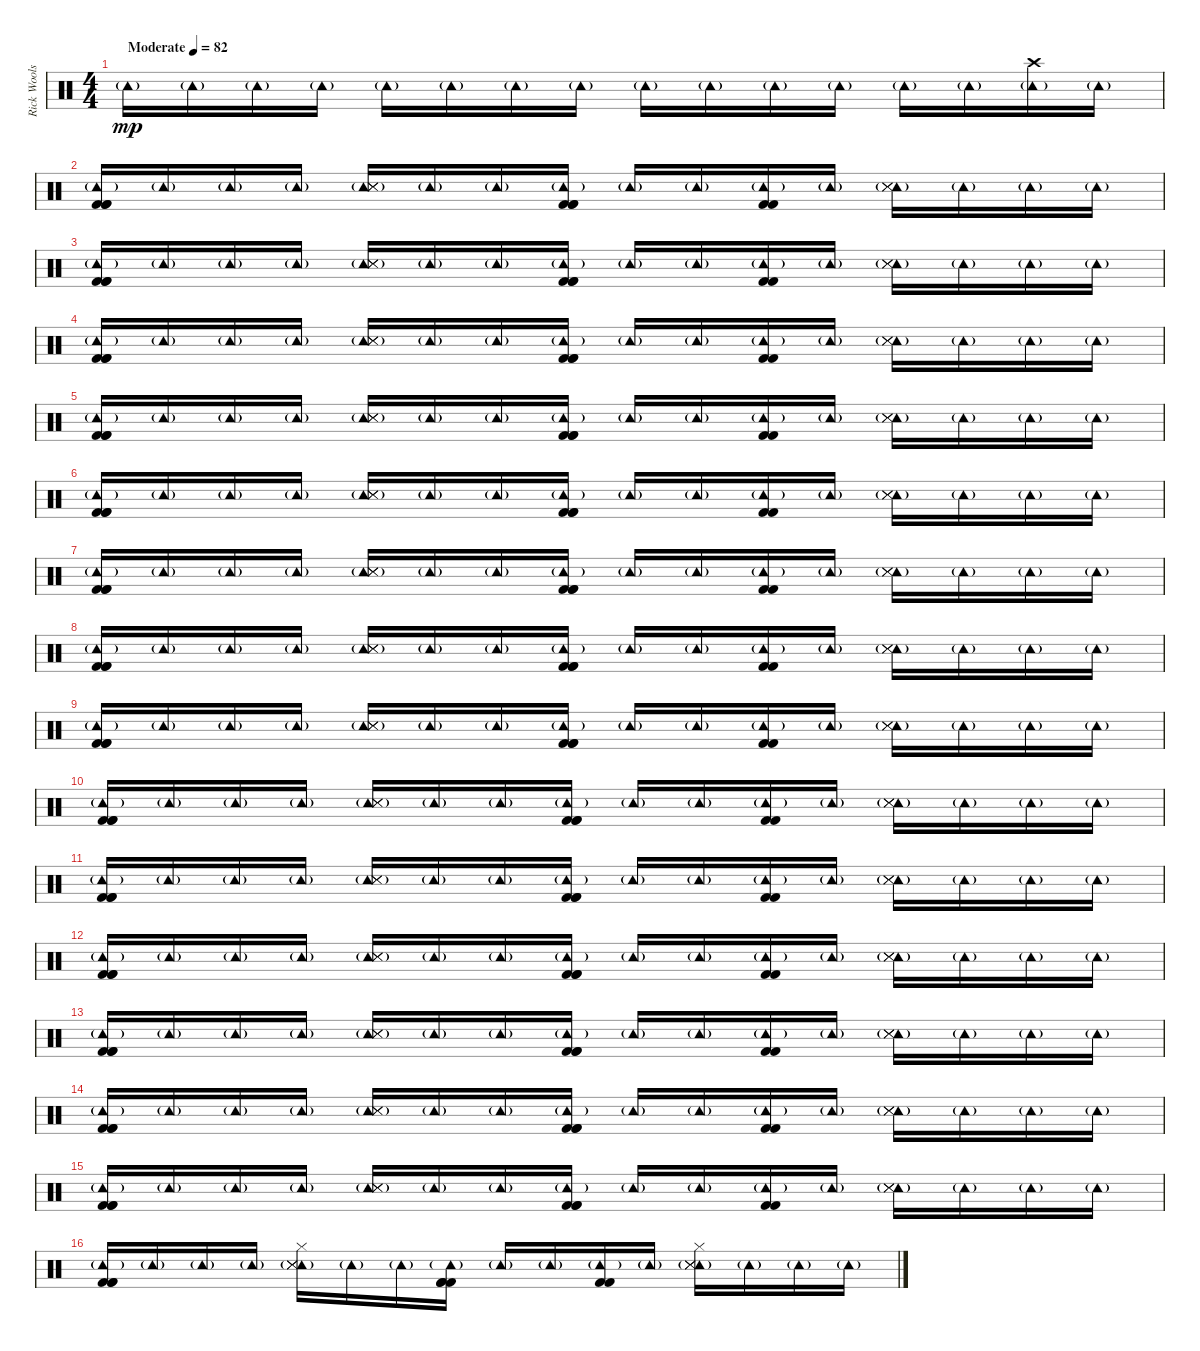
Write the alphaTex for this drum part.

\track ("Rick Woolstenhulme [Drums]" "Rick Wools") {instrument percussion}
\staff {score}
\articulation defaults
\ts (4 4)
\tempo (82 "Moderate")
\clef neutral
\ks c "Tambourine (hit)"{g}.16{dy mp} "Tambourine (hit)"{g}.16 "Tambourine (hit)"{g}.16 "Tambourine (hit)"{g}.16 "Tambourine (hit)"{g}.16 "Tambourine (hit)"{g}.16 "Tambourine (hit)"{g}.16 "Tambourine (hit)"{g}.16 "Tambourine (hit)"{g}.16 "Tambourine (hit)"{g}.16 "Tambourine (hit)"{g}.16 "Tambourine (hit)"{g}.16 "Tambourine (hit)"{g}.16 "Tambourine (hit)"{g}.16
("Tambourine (hit)"{g} "Crash high (hit)").16 "Tambourine (hit)"{g}.16 |
("Tambourine (hit)"{g} "Kick (hit) 2" "Kick (hit) 2" "Kick (hit) 2").16 "Tambourine (hit)"{g}.16 "Tambourine (hit)"{g}.16 "Tambourine (hit)"{g}.16 ("Tambourine (hit)"{g} "Snare (side stick) 3" "Snare (side stick) 3" "Snare (side stick) 3").16 "Tambourine (hit)"{g}.16 "Tambourine (hit)"{g}.16 ("Tambourine (hit)"{g} "Kick (hit) 2" "Kick (hit) 2" "Kick (hit) 2").16 "Tambourine (hit)"{g}.16 "Tambourine (hit)"{g}.16 ("Tambourine (hit)"{g} "Kick (hit) 2" "Kick (hit) 2").16 "Tambourine (hit)"{g}.16 ("Tambourine (hit)"{g} "Snare (side stick) 3" "Snare (side stick) 3" "Snare (side stick) 3").16 "Tambourine (hit)"{g}.16 "Tambourine (hit)"{g}.16 "Tambourine (hit)"{g}.16 |
("Tambourine (hit)"{g} "Kick (hit) 2" "Kick (hit) 2" "Kick (hit) 2").16 "Tambourine (hit)"{g}.16 "Tambourine (hit)"{g}.16 "Tambourine (hit)"{g}.16 ("Tambourine (hit)"{g} "Snare (side stick) 3" "Snare (side stick) 3" "Snare (side stick) 3").16 "Tambourine (hit)"{g}.16 "Tambourine (hit)"{g}.16 ("Tambourine (hit)"{g} "Kick (hit) 2" "Kick (hit) 2" "Kick (hit) 2").16 "Tambourine (hit)"{g}.16 "Tambourine (hit)"{g}.16 ("Tambourine (hit)"{g} "Kick (hit) 2" "Kick (hit) 2").16 "Tambourine (hit)"{g}.16 ("Tambourine (hit)"{g} "Snare (side stick) 3" "Snare (side stick) 3" "Snare (side stick) 3").16 "Tambourine (hit)"{g}.16 "Tambourine (hit)"{g}.16 "Tambourine (hit)"{g}.16 |
("Tambourine (hit)"{g} "Kick (hit) 2" "Kick (hit) 2" "Kick (hit) 2").16 "Tambourine (hit)"{g}.16 "Tambourine (hit)"{g}.16 "Tambourine (hit)"{g}.16 ("Tambourine (hit)"{g} "Snare (side stick) 3" "Snare (side stick) 3" "Snare (side stick) 3").16 "Tambourine (hit)"{g}.16 "Tambourine (hit)"{g}.16 ("Tambourine (hit)"{g} "Kick (hit) 2" "Kick (hit) 2" "Kick (hit) 2").16 "Tambourine (hit)"{g}.16 "Tambourine (hit)"{g}.16 ("Tambourine (hit)"{g} "Kick (hit) 2" "Kick (hit) 2").16 "Tambourine (hit)"{g}.16 ("Tambourine (hit)"{g} "Snare (side stick) 3" "Snare (side stick) 3" "Snare (side stick) 3").16 "Tambourine (hit)"{g}.16 "Tambourine (hit)"{g}.16 "Tambourine (hit)"{g}.16 |
("Tambourine (hit)"{g} "Kick (hit) 2" "Kick (hit) 2" "Kick (hit) 2").16 "Tambourine (hit)"{g}.16 "Tambourine (hit)"{g}.16 "Tambourine (hit)"{g}.16 ("Tambourine (hit)"{g} "Snare (side stick) 3" "Snare (side stick) 3" "Snare (side stick) 3").16 "Tambourine (hit)"{g}.16 "Tambourine (hit)"{g}.16 ("Tambourine (hit)"{g} "Kick (hit) 2" "Kick (hit) 2" "Kick (hit) 2").16 "Tambourine (hit)"{g}.16 "Tambourine (hit)"{g}.16 ("Tambourine (hit)"{g} "Kick (hit) 2" "Kick (hit) 2").16 "Tambourine (hit)"{g}.16 ("Tambourine (hit)"{g} "Snare (side stick) 3" "Snare (side stick) 3" "Snare (side stick) 3").16 "Tambourine (hit)"{g}.16 "Tambourine (hit)"{g}.16 "Tambourine (hit)"{g}.16 |
("Tambourine (hit)"{g} "Kick (hit) 2" "Kick (hit) 2" "Kick (hit) 2").16 "Tambourine (hit)"{g}.16 "Tambourine (hit)"{g}.16 "Tambourine (hit)"{g}.16 ("Tambourine (hit)"{g} "Snare (side stick) 3" "Snare (side stick) 3" "Snare (side stick) 3").16 "Tambourine (hit)"{g}.16 "Tambourine (hit)"{g}.16 ("Tambourine (hit)"{g} "Kick (hit) 2" "Kick (hit) 2" "Kick (hit) 2").16 "Tambourine (hit)"{g}.16 "Tambourine (hit)"{g}.16 ("Tambourine (hit)"{g} "Kick (hit) 2" "Kick (hit) 2").16 "Tambourine (hit)"{g}.16 ("Tambourine (hit)"{g} "Snare (side stick) 3" "Snare (side stick) 3" "Snare (side stick) 3").16 "Tambourine (hit)"{g}.16 "Tambourine (hit)"{g}.16 "Tambourine (hit)"{g}.16 |
("Tambourine (hit)"{g} "Kick (hit) 2" "Kick (hit) 2" "Kick (hit) 2").16 "Tambourine (hit)"{g}.16 "Tambourine (hit)"{g}.16 "Tambourine (hit)"{g}.16 ("Tambourine (hit)"{g} "Snare (side stick) 3" "Snare (side stick) 3" "Snare (side stick) 3").16 "Tambourine (hit)"{g}.16 "Tambourine (hit)"{g}.16 ("Tambourine (hit)"{g} "Kick (hit) 2" "Kick (hit) 2" "Kick (hit) 2").16 "Tambourine (hit)"{g}.16 "Tambourine (hit)"{g}.16 ("Tambourine (hit)"{g} "Kick (hit) 2" "Kick (hit) 2").16 "Tambourine (hit)"{g}.16 ("Tambourine (hit)"{g} "Snare (side stick) 3" "Snare (side stick) 3" "Snare (side stick) 3").16 "Tambourine (hit)"{g}.16 "Tambourine (hit)"{g}.16 "Tambourine (hit)"{g}.16 |
("Tambourine (hit)"{g} "Kick (hit) 2" "Kick (hit) 2" "Kick (hit) 2").16 "Tambourine (hit)"{g}.16 "Tambourine (hit)"{g}.16 "Tambourine (hit)"{g}.16 ("Tambourine (hit)"{g} "Snare (side stick) 3" "Snare (side stick) 3" "Snare (side stick) 3").16 "Tambourine (hit)"{g}.16 "Tambourine (hit)"{g}.16 ("Tambourine (hit)"{g} "Kick (hit) 2" "Kick (hit) 2" "Kick (hit) 2").16 "Tambourine (hit)"{g}.16 "Tambourine (hit)"{g}.16 ("Tambourine (hit)"{g} "Kick (hit) 2" "Kick (hit) 2").16 "Tambourine (hit)"{g}.16 ("Tambourine (hit)"{g} "Snare (side stick) 3" "Snare (side stick) 3" "Snare (side stick) 3").16 "Tambourine (hit)"{g}.16 "Tambourine (hit)"{g}.16 "Tambourine (hit)"{g}.16 |
("Tambourine (hit)"{g} "Kick (hit) 2" "Kick (hit) 2" "Kick (hit) 2").16 "Tambourine (hit)"{g}.16 "Tambourine (hit)"{g}.16 "Tambourine (hit)"{g}.16 ("Tambourine (hit)"{g} "Snare (side stick) 3" "Snare (side stick) 3" "Snare (side stick) 3").16 "Tambourine (hit)"{g}.16 "Tambourine (hit)"{g}.16 ("Tambourine (hit)"{g} "Kick (hit) 2" "Kick (hit) 2" "Kick (hit) 2").16 "Tambourine (hit)"{g}.16 "Tambourine (hit)"{g}.16 ("Tambourine (hit)"{g} "Kick (hit) 2" "Kick (hit) 2").16 "Tambourine (hit)"{g}.16 ("Tambourine (hit)"{g} "Snare (side stick) 3" "Snare (side stick) 3" "Snare (side stick) 3").16 "Tambourine (hit)"{g}.16 "Tambourine (hit)"{g}.16 "Tambourine (hit)"{g}.16 |
("Tambourine (hit)"{g} "Kick (hit) 2" "Kick (hit) 2" "Kick (hit) 2").16 "Tambourine (hit)"{g}.16 "Tambourine (hit)"{g}.16 "Tambourine (hit)"{g}.16 ("Tambourine (hit)"{g} "Snare (side stick) 3" "Snare (side stick) 3" "Snare (side stick) 3").16 "Tambourine (hit)"{g}.16 "Tambourine (hit)"{g}.16 ("Tambourine (hit)"{g} "Kick (hit) 2" "Kick (hit) 2" "Kick (hit) 2").16 "Tambourine (hit)"{g}.16 "Tambourine (hit)"{g}.16 ("Tambourine (hit)"{g} "Kick (hit) 2" "Kick (hit) 2").16 "Tambourine (hit)"{g}.16 ("Tambourine (hit)"{g} "Snare (side stick) 3" "Snare (side stick) 3" "Snare (side stick) 3").16 "Tambourine (hit)"{g}.16 "Tambourine (hit)"{g}.16 "Tambourine (hit)"{g}.16 |
("Tambourine (hit)"{g} "Kick (hit) 2" "Kick (hit) 2" "Kick (hit) 2").16 "Tambourine (hit)"{g}.16 "Tambourine (hit)"{g}.16 "Tambourine (hit)"{g}.16 ("Tambourine (hit)"{g} "Snare (side stick) 3" "Snare (side stick) 3" "Snare (side stick) 3").16 "Tambourine (hit)"{g}.16 "Tambourine (hit)"{g}.16 ("Tambourine (hit)"{g} "Kick (hit) 2" "Kick (hit) 2" "Kick (hit) 2").16 "Tambourine (hit)"{g}.16 "Tambourine (hit)"{g}.16 ("Tambourine (hit)"{g} "Kick (hit) 2" "Kick (hit) 2").16 "Tambourine (hit)"{g}.16 ("Tambourine (hit)"{g} "Snare (side stick) 3" "Snare (side stick) 3" "Snare (side stick) 3").16 "Tambourine (hit)"{g}.16 "Tambourine (hit)"{g}.16 "Tambourine (hit)"{g}.16 |
("Tambourine (hit)"{g} "Kick (hit) 2" "Kick (hit) 2" "Kick (hit) 2").16 "Tambourine (hit)"{g}.16 "Tambourine (hit)"{g}.16 "Tambourine (hit)"{g}.16 ("Tambourine (hit)"{g} "Snare (side stick) 3" "Snare (side stick) 3" "Snare (side stick) 3").16 "Tambourine (hit)"{g}.16 "Tambourine (hit)"{g}.16 ("Tambourine (hit)"{g} "Kick (hit) 2" "Kick (hit) 2" "Kick (hit) 2").16 "Tambourine (hit)"{g}.16 "Tambourine (hit)"{g}.16 ("Tambourine (hit)"{g} "Kick (hit) 2" "Kick (hit) 2").16 "Tambourine (hit)"{g}.16 ("Tambourine (hit)"{g} "Snare (side stick) 3" "Snare (side stick) 3" "Snare (side stick) 3").16 "Tambourine (hit)"{g}.16 "Tambourine (hit)"{g}.16 "Tambourine (hit)"{g}.16 |
("Tambourine (hit)"{g} "Kick (hit) 2" "Kick (hit) 2" "Kick (hit) 2").16 "Tambourine (hit)"{g}.16 "Tambourine (hit)"{g}.16 "Tambourine (hit)"{g}.16 ("Tambourine (hit)"{g} "Snare (side stick) 3" "Snare (side stick) 3" "Snare (side stick) 3").16 "Tambourine (hit)"{g}.16 "Tambourine (hit)"{g}.16 ("Tambourine (hit)"{g} "Kick (hit) 2" "Kick (hit) 2" "Kick (hit) 2").16 "Tambourine (hit)"{g}.16 "Tambourine (hit)"{g}.16 ("Tambourine (hit)"{g} "Kick (hit) 2" "Kick (hit) 2").16 "Tambourine (hit)"{g}.16 ("Tambourine (hit)"{g} "Snare (side stick) 3" "Snare (side stick) 3" "Snare (side stick) 3").16 "Tambourine (hit)"{g}.16 "Tambourine (hit)"{g}.16 "Tambourine (hit)"{g}.16 |
("Tambourine (hit)"{g} "Kick (hit) 2" "Kick (hit) 2" "Kick (hit) 2").16 "Tambourine (hit)"{g}.16 "Tambourine (hit)"{g}.16 "Tambourine (hit)"{g}.16 ("Tambourine (hit)"{g} "Snare (side stick) 3" "Snare (side stick) 3" "Snare (side stick) 3").16 "Tambourine (hit)"{g}.16 "Tambourine (hit)"{g}.16 ("Tambourine (hit)"{g} "Kick (hit) 2" "Kick (hit) 2" "Kick (hit) 2").16 "Tambourine (hit)"{g}.16 "Tambourine (hit)"{g}.16 ("Tambourine (hit)"{g} "Kick (hit) 2" "Kick (hit) 2").16 "Tambourine (hit)"{g}.16 ("Tambourine (hit)"{g} "Snare (side stick) 3" "Snare (side stick) 3" "Snare (side stick) 3").16 "Tambourine (hit)"{g}.16 "Tambourine (hit)"{g}.16 "Tambourine (hit)"{g}.16 |
("Tambourine (hit)"{g} "Kick (hit) 2" "Kick (hit) 2" "Kick (hit) 2").16 "Tambourine (hit)"{g}.16 "Tambourine (hit)"{g}.16 "Tambourine (hit)"{g}.16 ("Tambourine (hit)"{g} "Snare (side stick) 3" "Snare (side stick) 3" "Snare (side stick) 3").16 "Tambourine (hit)"{g}.16 "Tambourine (hit)"{g}.16 ("Tambourine (hit)"{g} "Kick (hit) 2" "Kick (hit) 2" "Kick (hit) 2").16 "Tambourine (hit)"{g}.16 "Tambourine (hit)"{g}.16 ("Tambourine (hit)"{g} "Kick (hit) 2" "Kick (hit) 2").16 "Tambourine (hit)"{g}.16 ("Tambourine (hit)"{g} "Snare (side stick) 3" "Snare (side stick) 3" "Snare (side stick) 3").16 "Tambourine (hit)"{g}.16 "Tambourine (hit)"{g}.16 "Tambourine (hit)"{g}.16 |
("Tambourine (hit)"{g} "Kick (hit) 2" "Kick (hit) 2" "Kick (hit) 2").16 "Tambourine (hit)"{g}.16 "Tambourine (hit)"{g}.16 "Tambourine (hit)"{g}.16 ("Tambourine (hit)"{g} "Hi-Hat (closed)" "Snare (side stick) 3" "Snare (side stick) 3" "Snare (side stick) 3").16 "Tambourine (hit)"{g}.16 "Tambourine (hit)"{g}.16 ("Tambourine (hit)"{g} "Kick (hit) 2" "Kick (hit) 2" "Kick (hit) 2").16 "Tambourine (hit)"{g}.16 "Tambourine (hit)"{g}.16 ("Tambourine (hit)"{g} "Kick (hit) 2" "Kick (hit) 2").16 "Tambourine (hit)"{g}.16 ("Tambourine (hit)"{g} "Hi-Hat (closed)" "Snare (side stick) 3" "Snare (side stick) 3" "Snare (side stick) 3").16 "Tambourine (hit)"{g}.16 "Tambourine (hit)"{g}.16 "Tambourine (hit)"{g}.16
